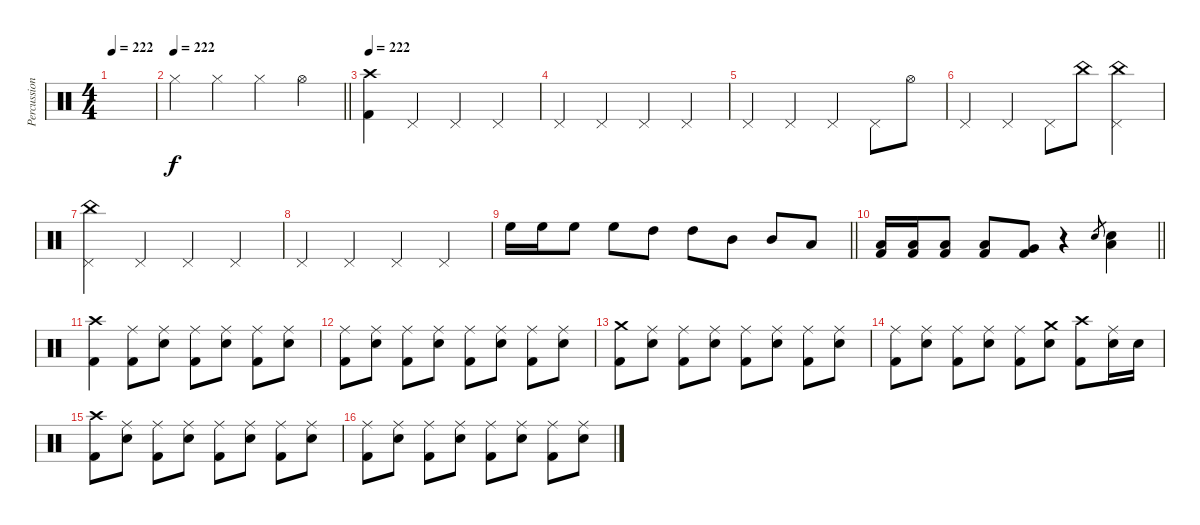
\track ("Percussions" "Percussion") {instrument percussion}
\staff {score}
\articulation defaults
\ts (4 4)
\tempo 222
\clef neutral
\ks c
|
\tempo 222
\barLineRight lightlight "Hi-Hat (closed)".4 "Hi-Hat (closed)".4 "Hi-Hat (closed)".4 "Hi-Hat (open)".4
|
\section ("" "")
\tempo 222
("Crash high (hit)" "Kick (hit) 2").4 "Pedal Hi-Hat (hit)".4 "Pedal Hi-Hat (hit)".4 "Pedal Hi-Hat (hit)".4 |
"Pedal Hi-Hat (hit)".4 "Pedal Hi-Hat (hit)".4 "Pedal Hi-Hat (hit)".4 "Pedal Hi-Hat (hit)".4 |
"Pedal Hi-Hat (hit)".4 "Pedal Hi-Hat (hit)".4 "Pedal Hi-Hat (hit)".4 "Pedal Hi-Hat (hit)".8 "Hi-Hat (open)".8 |
"Pedal Hi-Hat (hit)".4 "Pedal Hi-Hat (hit)".4 "Pedal Hi-Hat (hit)".8 "China (hit)".8 ("Pedal Hi-Hat (hit)" "China (hit)").4 |
("Pedal Hi-Hat (hit)" "China (hit)").4 "Pedal Hi-Hat (hit)".4 "Pedal Hi-Hat (hit)".4 "Pedal Hi-Hat (hit)".4 |
"Pedal Hi-Hat (hit)".4 "Pedal Hi-Hat (hit)".4 "Pedal Hi-Hat (hit)".4 "Pedal Hi-Hat (hit)".4 |
\barLineRight lightlight "High Floor Tom (hit)".16 "High Floor Tom (hit)".16 "High Floor Tom (hit)".8 "High Floor Tom (hit)".8 "High Tom (hit)".8 "High Tom (hit)".8 "Mid Tom (hit)".8 "Mid Tom (hit)".8 "Low Tom (hit)".8
|
\barLineRight lightlight
("Low Tom (hit)" "Kick (hit) 2").16 ("Low Tom (hit)" "Kick (hit) 2").16 ("Low Tom (hit)" "Kick (hit) 2").8 ("Low Tom (hit)" "Kick (hit) 2").8 ("Very Low Tom (hit)" "Kick (hit) 2").8 r.4 "Electric Snare (hit)".8{gr} ("Electric Snare (hit)" "Low Floor Tom (hit)").4 |
\section ("" "")
("Crash high (hit)" "Kick (hit) 2").4 ("Ride (middle)" "Kick (hit) 2").8 ("Ride (middle)" "Electric Snare (hit)").8 ("Ride (middle)" "Kick (hit) 2").8 ("Ride (middle)" "Electric Snare (hit)").8 ("Ride (middle)" "Kick (hit) 2").8 ("Ride (middle)" "Electric Snare (hit)").8 |
("Ride (middle)" "Kick (hit) 2").8 ("Ride (middle)" "Electric Snare (hit)").8 ("Ride (middle)" "Kick (hit) 2").8 ("Ride (middle)" "Electric Snare (hit)").8 ("Ride (middle)" "Kick (hit) 2").8 ("Ride (middle)" "Electric Snare (hit)").8 ("Ride (middle)" "Kick (hit) 2").8 ("Ride (middle)" "Electric Snare (hit)").8 |
("Crash medium (hit)" "Kick (hit) 2").8 ("Ride (middle)" "Electric Snare (hit)").8 ("Ride (middle)" "Kick (hit) 2").8 ("Ride (middle)" "Electric Snare (hit)").8 ("Ride (middle)" "Kick (hit) 2").8 ("Ride (middle)" "Electric Snare (hit)").8 ("Ride (middle)" "Kick (hit) 2").8 ("Ride (middle)" "Electric Snare (hit)").8 |
("Ride (middle)" "Kick (hit) 2").8 ("Ride (middle)" "Electric Snare (hit)").8 ("Ride (middle)" "Kick (hit) 2").8 ("Ride (middle)" "Electric Snare (hit)").8 ("Ride (middle)" "Kick (hit) 2").8 ("Crash medium (hit)" "Electric Snare (hit)").8 ("Crash high (hit)" "Kick (hit) 2").8 ("Ride (middle)" "Electric Snare (hit)").16 "Electric Snare (hit)".16 |
("Crash high (hit)" "Kick (hit) 2").8 ("Ride (middle)" "Electric Snare (hit)").8 ("Ride (middle)" "Kick (hit) 2").8 ("Ride (middle)" "Electric Snare (hit)").8 ("Ride (middle)" "Kick (hit) 2").8 ("Ride (middle)" "Electric Snare (hit)").8 ("Ride (middle)" "Kick (hit) 2").8 ("Ride (middle)" "Electric Snare (hit)").8 |
("Ride (middle)" "Kick (hit) 2").8 ("Ride (middle)" "Electric Snare (hit)").8 ("Ride (middle)" "Kick (hit) 2").8 ("Ride (middle)" "Electric Snare (hit)").8 ("Ride (middle)" "Kick (hit) 2").8 ("Ride (middle)" "Electric Snare (hit)").8 ("Ride (middle)" "Kick (hit) 2").8 ("Ride (middle)" "Electric Snare (hit)").8
